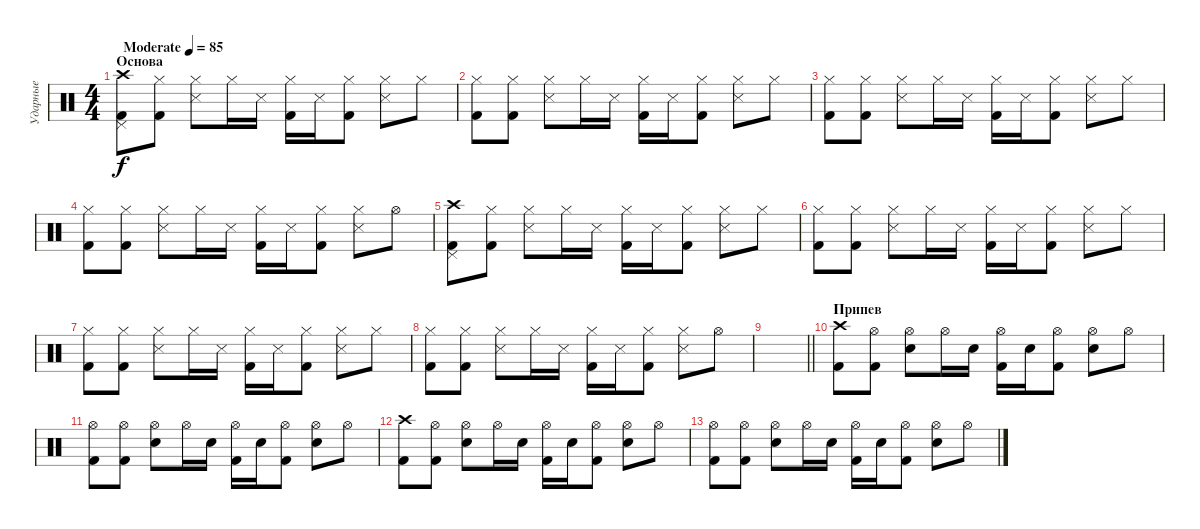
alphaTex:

\track ("Ударные" "Ударные") {instrument percussion}
\staff {score}
\articulation defaults
\ts (4 4)
\section ("" "Основа")
\tempo (85 "Moderate")
\clef neutral
\ks c
("Crash high (hit)" "Pedal Hi-Hat (hit)" "Kick (hit) 2").8{dy f} ("Hi-Hat (closed)" "Kick (hit) 2").8 ("Hi-Hat (closed)" "Snare (side stick) 3").8 "Hi-Hat (closed)".16 "Snare (side stick) 3".16 ("Hi-Hat (closed)" "Kick (hit) 2").16 "Snare (side stick) 3".16 ("Hi-Hat (closed)" "Kick (hit) 2").8 ("Hi-Hat (closed)" "Snare (side stick) 3").8 "Hi-Hat (closed)".8 |
("Hi-Hat (closed)" "Kick (hit) 2").8 ("Hi-Hat (closed)" "Kick (hit) 2").8 ("Hi-Hat (closed)" "Snare (side stick) 3").8 "Hi-Hat (closed)".16 "Snare (side stick) 3".16 ("Hi-Hat (closed)" "Kick (hit) 2").16 "Snare (side stick) 3".16 ("Hi-Hat (closed)" "Kick (hit) 2").8 ("Hi-Hat (closed)" "Snare (side stick) 3").8 "Hi-Hat (closed)".8 |
("Hi-Hat (closed)" "Kick (hit) 2").8 ("Hi-Hat (closed)" "Kick (hit) 2").8 ("Hi-Hat (closed)" "Snare (side stick) 3").8 "Hi-Hat (closed)".16 "Snare (side stick) 3".16 ("Hi-Hat (closed)" "Kick (hit) 2").16 "Snare (side stick) 3".16 ("Hi-Hat (closed)" "Kick (hit) 2").8 ("Hi-Hat (closed)" "Snare (side stick) 3").8 "Hi-Hat (closed)".8 |
("Hi-Hat (closed)" "Kick (hit) 2").8 ("Hi-Hat (closed)" "Kick (hit) 2").8 ("Hi-Hat (closed)" "Snare (side stick) 3").8 "Hi-Hat (closed)".16 "Snare (side stick) 3".16 ("Hi-Hat (closed)" "Kick (hit) 2").16 "Snare (side stick) 3".16 ("Hi-Hat (closed)" "Kick (hit) 2").8 ("Hi-Hat (closed)" "Snare (side stick) 3").8 "Hi-Hat (open)".8 |
("Crash high (hit)" "Pedal Hi-Hat (hit)" "Kick (hit) 2").8 ("Hi-Hat (closed)" "Kick (hit) 2").8 ("Hi-Hat (closed)" "Snare (side stick) 3").8 "Hi-Hat (closed)".16 "Snare (side stick) 3".16 ("Hi-Hat (closed)" "Kick (hit) 2").16 "Snare (side stick) 3".16 ("Hi-Hat (closed)" "Kick (hit) 2").8 ("Hi-Hat (closed)" "Snare (side stick) 3").8 "Hi-Hat (closed)".8 |
("Hi-Hat (closed)" "Kick (hit) 2").8 ("Hi-Hat (closed)" "Kick (hit) 2").8 ("Hi-Hat (closed)" "Snare (side stick) 3").8 "Hi-Hat (closed)".16 "Snare (side stick) 3".16 ("Hi-Hat (closed)" "Kick (hit) 2").16 "Snare (side stick) 3".16 ("Hi-Hat (closed)" "Kick (hit) 2").8 ("Hi-Hat (closed)" "Snare (side stick) 3").8 "Hi-Hat (closed)".8 |
("Hi-Hat (closed)" "Kick (hit) 2").8 ("Hi-Hat (closed)" "Kick (hit) 2").8 ("Hi-Hat (closed)" "Snare (side stick) 3").8 "Hi-Hat (closed)".16 "Snare (side stick) 3".16 ("Hi-Hat (closed)" "Kick (hit) 2").16 "Snare (side stick) 3".16 ("Hi-Hat (closed)" "Kick (hit) 2").8 ("Hi-Hat (closed)" "Snare (side stick) 3").8 "Hi-Hat (closed)".8 |
("Hi-Hat (closed)" "Kick (hit) 2").8 ("Hi-Hat (closed)" "Kick (hit) 2").8 ("Hi-Hat (closed)" "Snare (side stick) 3").8 "Hi-Hat (closed)".16 "Snare (side stick) 3".16 ("Hi-Hat (closed)" "Kick (hit) 2").16 "Snare (side stick) 3".16 ("Hi-Hat (closed)" "Kick (hit) 2").8 ("Hi-Hat (closed)" "Snare (side stick) 3").8 "Hi-Hat (open)".8 |
\barLineRight lightlight
|
\section ("" "Припев")
("Crash high (hit)" "Kick (hit) 2").8 ("Hi-Hat (open)" "Kick (hit) 2").8 ("Hi-Hat (open)" "Electric Snare (hit)").8 "Hi-Hat (open)".16 "Electric Snare (hit)".16 ("Hi-Hat (open)" "Kick (hit) 2").16 "Electric Snare (hit)".16 ("Hi-Hat (open)" "Kick (hit) 2").8 ("Hi-Hat (open)" "Electric Snare (hit)").8 "Hi-Hat (open)".8 |
("Hi-Hat (open)" "Kick (hit) 2").8 ("Hi-Hat (open)" "Kick (hit) 2").8 ("Hi-Hat (open)" "Electric Snare (hit)").8 "Hi-Hat (open)".16 "Electric Snare (hit)".16 ("Hi-Hat (open)" "Kick (hit) 2").16 "Electric Snare (hit)".16 ("Hi-Hat (open)" "Kick (hit) 2").8 ("Hi-Hat (open)" "Electric Snare (hit)").8 "Hi-Hat (open)".8 |
("Crash high (hit)" "Kick (hit) 2").8 ("Hi-Hat (open)" "Kick (hit) 2").8 ("Hi-Hat (open)" "Electric Snare (hit)").8 "Hi-Hat (open)".16 "Electric Snare (hit)".16 ("Hi-Hat (open)" "Kick (hit) 2").16 "Electric Snare (hit)".16 ("Hi-Hat (open)" "Kick (hit) 2").8 ("Hi-Hat (open)" "Electric Snare (hit)").8 "Hi-Hat (open)".8 |
("Hi-Hat (open)" "Kick (hit) 2").8 ("Hi-Hat (open)" "Kick (hit) 2").8 ("Hi-Hat (open)" "Electric Snare (hit)").8 "Hi-Hat (open)".16 "Electric Snare (hit)".16 ("Hi-Hat (open)" "Kick (hit) 2").16 "Electric Snare (hit)".16 ("Hi-Hat (open)" "Kick (hit) 2").8 ("Hi-Hat (open)" "Electric Snare (hit)").8 "Hi-Hat (open)".8
